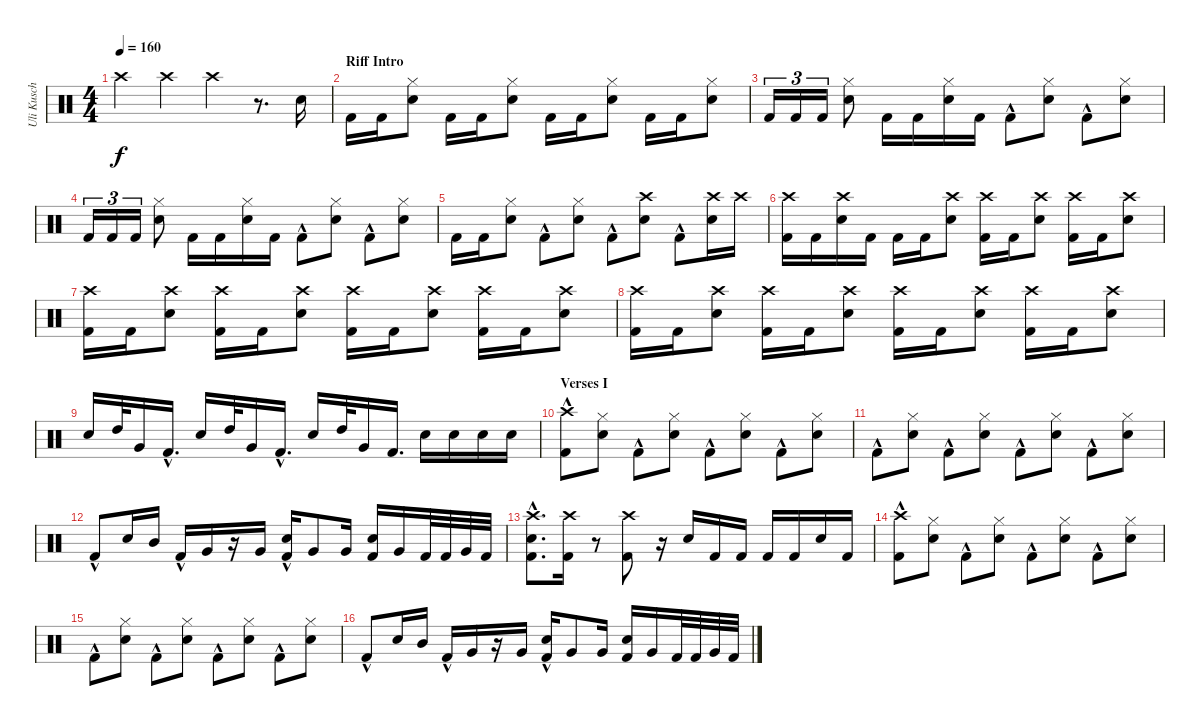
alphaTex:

\track ("Uli Kusch" "Uli Kusch") {instrument percussion}
\staff {score}
\articulation defaults
\ts (4 4)
\tempo 160
\clef neutral
\ks c "Crash high (hit)".4{dy f} "Crash high (hit)".4 "Crash high (hit)".4
r.8{d} "Snare (hit) 2".16 |
\section ("" "Riff Intro")
"Kick (hit) 2".16 "Kick (hit) 2".16 ("Snare (hit) 2" "Hi-Hat (closed)").8 "Kick (hit) 2".16 "Kick (hit) 2".16 ("Hi-Hat (closed)" "Snare (hit) 2").8 "Kick (hit) 2".16 "Kick (hit) 2".16 ("Snare (hit) 2" "Hi-Hat (closed)").8 "Kick (hit) 2".16 "Kick (hit) 2".16 ("Hi-Hat (closed)" "Snare (hit) 2").8 |
"Kick (hit) 2".16{tu (3 2)} "Kick (hit) 2".16{tu (3 2)} "Kick (hit) 2".16{tu (3 2)} ("Snare (hit) 2" "Hi-Hat (closed)").8 "Kick (hit) 2".16 "Kick (hit) 2".16 ("Hi-Hat (closed)" "Snare (hit) 2").16 "Kick (hit) 2".16 "Kick (hit) 2"{hac}.8 ("Snare (hit) 2" "Hi-Hat (closed)").8 "Kick (hit) 2"{hac}.8 ("Hi-Hat (closed)" "Snare (hit) 2").8 |
"Kick (hit) 2".16{tu (3 2)} "Kick (hit) 2".16{tu (3 2)} "Kick (hit) 2".16{tu (3 2)} ("Snare (hit) 2" "Hi-Hat (closed)").8 "Kick (hit) 2".16 "Kick (hit) 2".16 ("Hi-Hat (closed)" "Snare (hit) 2").16 "Kick (hit) 2".16 "Kick (hit) 2"{hac}.8 ("Snare (hit) 2" "Hi-Hat (closed)").8 "Kick (hit) 2"{hac}.8 ("Hi-Hat (closed)" "Snare (hit) 2").8 |
"Kick (hit) 2".16 "Kick (hit) 2".16 ("Snare (hit) 2" "Hi-Hat (closed)").8 "Kick (hit) 2"{hac}.8 ("Hi-Hat (closed)" "Snare (hit) 2").8 "Kick (hit) 2"{hac}.8 ("Snare (hit) 2" "Crash high (hit)").8 "Kick (hit) 2"{hac}.8 ("Snare (hit) 2" "Crash high (hit)").16 "Crash high (hit)".16 |
("Kick (hit) 2" "Crash high (hit)").16 "Kick (hit) 2".16 ("Crash high (hit)" "Snare (hit) 2").16 "Kick (hit) 2".16 "Kick (hit) 2".16 "Kick (hit) 2".16 ("Crash high (hit)" "Snare (hit) 2").8 ("Kick (hit) 2" "Crash high (hit)").16 "Kick (hit) 2".16 ("Crash high (hit)" "Snare (hit) 2").8 ("Kick (hit) 2" "Crash high (hit)").16 "Kick (hit) 2".16 ("Crash high (hit)" "Snare (hit) 2").8 |
("Kick (hit) 2" "Crash high (hit)").16 "Kick (hit) 2".16 ("Crash high (hit)" "Snare (hit) 2").8 ("Kick (hit) 2" "Crash high (hit)").16 "Kick (hit) 2".16 ("Crash high (hit)" "Snare (hit) 2").8 ("Kick (hit) 2" "Crash high (hit)").16 "Kick (hit) 2".16 ("Crash high (hit)" "Snare (hit) 2").8 ("Kick (hit) 2" "Crash high (hit)").16 "Kick (hit) 2".16 ("Crash high (hit)" "Snare (hit) 2").8 |
("Kick (hit) 2" "Crash high (hit)").16 "Kick (hit) 2".16 ("Crash high (hit)" "Snare (hit) 2").8 ("Kick (hit) 2" "Crash high (hit)").16 "Kick (hit) 2".16 ("Crash high (hit)" "Snare (hit) 2").8 ("Kick (hit) 2" "Crash high (hit)").16 "Kick (hit) 2".16 ("Crash high (hit)" "Snare (hit) 2").8 ("Kick (hit) 2" "Crash high (hit)").16 "Kick (hit) 2".16 ("Crash high (hit)" "Snare (hit) 2").8 |
"Snare (hit) 2".16 "High Tom (hit)".32 "Very Low Tom (hit)".16 "Kick (hit) 2"{hac}.16{d} "Snare (hit) 2".16 "High Tom (hit)".32 "Very Low Tom (hit)".16 "Kick (hit) 2"{hac}.16{d} "Snare (hit) 2".16 "High Tom (hit)".32 "Very Low Tom (hit)".16 "Kick (hit) 2".16{d} "Snare (hit) 2".16 "Snare (hit) 2".16 "Snare (hit) 2".16 "Snare (hit) 2".16 |
\section ("" "Verses I")
("Kick (hit) 2"{hac} "Crash high (hit)").8 ("Hi-Hat (closed)" "Snare (hit) 2").8 "Kick (hit) 2"{hac}.8 ("Snare (hit) 2" "Hi-Hat (closed)").8 "Kick (hit) 2"{hac}.8 ("Snare (hit) 2" "Hi-Hat (closed)").8 "Kick (hit) 2"{hac}.8 ("Hi-Hat (closed)" "Snare (hit) 2").8 |
"Kick (hit) 2"{hac}.8 ("Snare (hit) 2" "Hi-Hat (closed)").8 "Kick (hit) 2"{hac}.8 ("Hi-Hat (closed)" "Snare (hit) 2").8 "Kick (hit) 2"{hac}.8 ("Snare (hit) 2" "Hi-Hat (closed)").8 "Kick (hit) 2"{hac}.8 ("Hi-Hat (closed)" "Snare (hit) 2").8 |
"Kick (hit) 2"{hac}.8 "Snare (hit) 2".16 "Mid Tom (hit)".16 "Kick (hit) 2"{hac}.16 "Very Low Tom (hit)".16 r.16 "Very Low Tom (hit)".16 ("Kick (hit) 2"{hac} "Snare (hit) 2").16 "Very Low Tom (hit)".8 "Very Low Tom (hit)".16 ("Snare (hit) 2" "Kick (hit) 2").16 "Very Low Tom (hit)".16 "Kick (hit) 2".32 "Kick (hit) 2".32 "Very Low Tom (hit)".32 "Kick (hit) 2".32 |
("Snare (hit) 2"{hac} "Crash high (hit)"{hac} "Kick (hit) 2"{hac}).8{d} ("Kick (hit) 2" "Crash high (hit)").16 r.8 ("Kick (hit) 2" "Crash high (hit)").8 r.16 "Snare (hit) 2".16 "Kick (hit) 2".16 "Kick (hit) 2".16 "Kick (hit) 2".16 "Kick (hit) 2".16 "Snare (hit) 2".16 "Kick (hit) 2".16 |
("Kick (hit) 2"{hac} "Crash high (hit)").8 ("Hi-Hat (closed)" "Snare (hit) 2").8 "Kick (hit) 2"{hac}.8 ("Snare (hit) 2" "Hi-Hat (closed)").8 "Kick (hit) 2"{hac}.8 ("Snare (hit) 2" "Hi-Hat (closed)").8 "Kick (hit) 2"{hac}.8 ("Hi-Hat (closed)" "Snare (hit) 2").8 |
"Kick (hit) 2"{hac}.8 ("Snare (hit) 2" "Hi-Hat (closed)").8 "Kick (hit) 2"{hac}.8 ("Hi-Hat (closed)" "Snare (hit) 2").8 "Kick (hit) 2"{hac}.8 ("Snare (hit) 2" "Hi-Hat (closed)").8 "Kick (hit) 2"{hac}.8 ("Hi-Hat (closed)" "Snare (hit) 2").8 |
"Kick (hit) 2"{hac}.8 "Snare (hit) 2".16 "Mid Tom (hit)".16 "Kick (hit) 2"{hac}.16 "Very Low Tom (hit)".16 r.16 "Very Low Tom (hit)".16 ("Kick (hit) 2"{hac} "Snare (hit) 2").16 "Very Low Tom (hit)".8 "Very Low Tom (hit)".16 ("Snare (hit) 2" "Kick (hit) 2").16 "Very Low Tom (hit)".16 "Kick (hit) 2".32 "Kick (hit) 2".32 "Very Low Tom (hit)".32 "Kick (hit) 2".32
